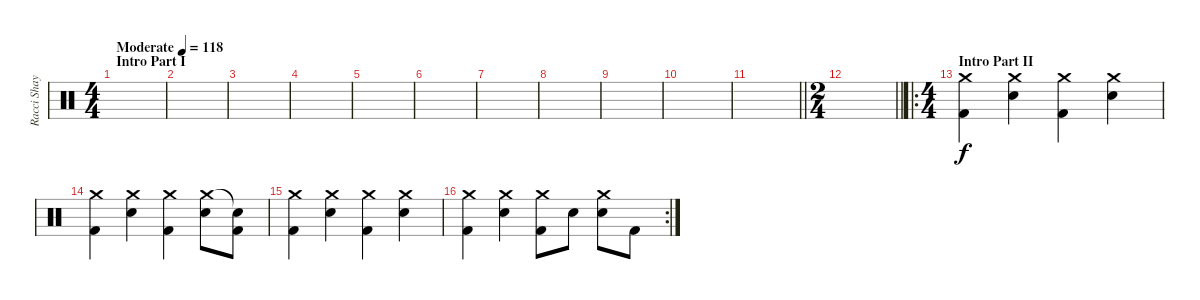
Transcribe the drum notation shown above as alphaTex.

\track ("Racci Shay" "Racci Shay") {instrument percussion}
\staff {score}
\articulation defaults
\ts (4 4)
\section ("" "Intro Part I")
\tempo (118 "Moderate")
\clef neutral
\ks c
|
|
|
|
|
|
|
|
|
|
\barLineRight lightlight
|
\ts (2 4)
\barLineRight lightlight
|
\ro
\ts (4 4)
\section ("" "Intro Part II")
("Crash medium (hit)" "Kick (hit) 2").4 ("Crash medium (hit)" "Electric Snare (hit)").4 ("Crash medium (hit)" "Kick (hit) 2").4 ("Crash medium (hit)" "Electric Snare (hit)").4 |
("Crash medium (hit)" "Kick (hit) 2").4 ("Crash medium (hit)" "Electric Snare (hit)").4 ("Crash medium (hit)" "Kick (hit) 2").4 ("Crash medium (hit)" "Electric Snare (hit)").8 ("Snare (hit)"{t} "Kick (hit) 2").8 |
("Crash medium (hit)" "Kick (hit) 2").4 ("Crash medium (hit)" "Electric Snare (hit)").4 ("Crash medium (hit)" "Kick (hit) 2").4 ("Crash medium (hit)" "Electric Snare (hit)").4 |
\rc 2
("Crash medium (hit)" "Kick (hit) 2").4 ("Crash medium (hit)" "Electric Snare (hit)").4 ("Crash medium (hit)" "Kick (hit) 2").8 "Electric Snare (hit)".8 ("Crash medium (hit)" "Electric Snare (hit)").8 "Kick (hit) 2".8
